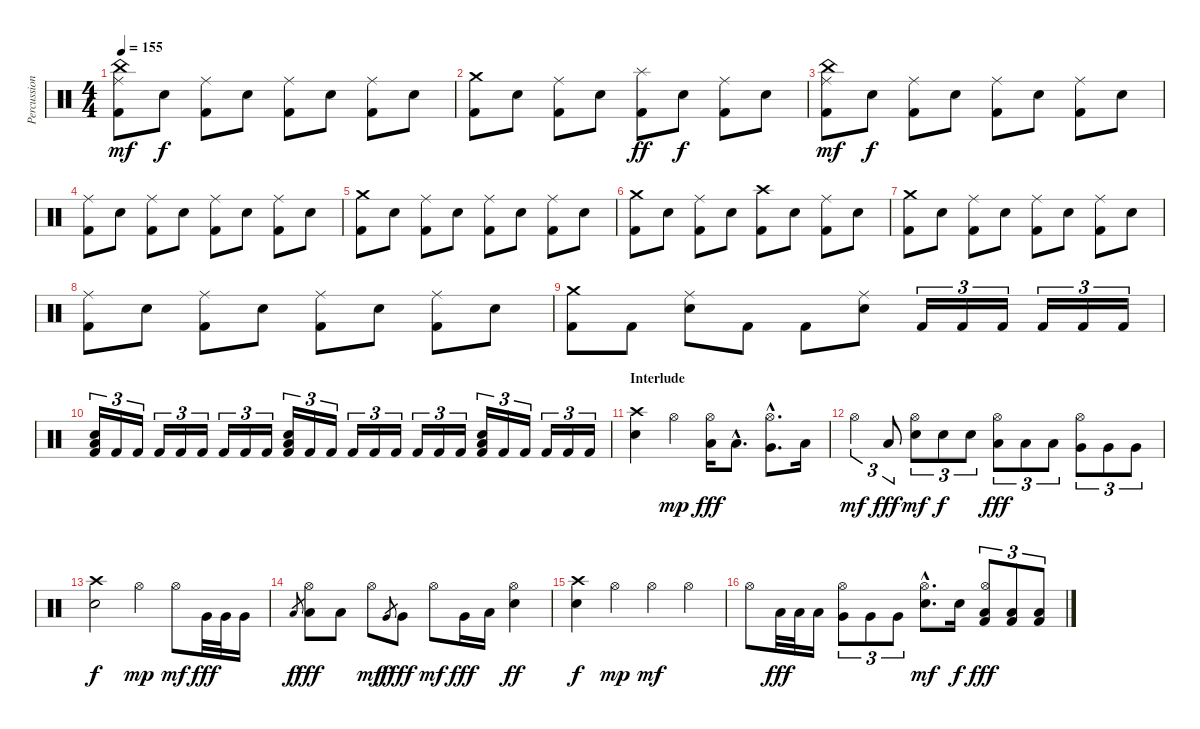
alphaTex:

\track ("Percussion" "Percussion") {instrument percussion}
\staff {score}
\articulation defaults
\ts (4 4)
\tempo 155
\clef neutral
\ks c
("China (hit)" "Ride (middle)" "Kick (hit) 2").8{dy mf} "Electric Snare (hit)".8{dy f} ("Ride (middle)" "Kick (hit) 2").8 "Electric Snare (hit)".8 ("Ride (middle)" "Kick (hit) 2").8 "Electric Snare (hit)".8 ("Ride (middle)" "Kick (hit) 2").8 "Electric Snare (hit)".8 |
("Crash medium (hit)" "Kick (hit) 2").8 "Electric Snare (hit)".8 ("Ride (middle)" "Kick (hit) 2").8 "Electric Snare (hit)".8 ("Splash (hit)" "Kick (hit) 2").8{dy ff} "Electric Snare (hit)".8{dy f} ("Ride (middle)" "Kick (hit) 2").8 "Electric Snare (hit)".8 |
("Ride (middle)" "China (hit)" "Kick (hit) 2").8{dy mf} "Electric Snare (hit)".8{dy f} ("Ride (middle)" "Kick (hit) 2").8 "Electric Snare (hit)".8 ("Ride (middle)" "Kick (hit) 2").8 "Electric Snare (hit)".8 ("Ride (middle)" "Kick (hit) 2").8 "Electric Snare (hit)".8 |
("Ride (middle)" "Kick (hit) 2").8 "Electric Snare (hit)".8 ("Ride (middle)" "Kick (hit) 2").8 "Electric Snare (hit)".8 ("Ride (middle)" "Kick (hit) 2").8 "Electric Snare (hit)".8 ("Ride (middle)" "Kick (hit) 2").8 "Electric Snare (hit)".8 |
("Crash medium (hit)" "Kick (hit) 2").8 "Electric Snare (hit)".8 ("Ride (middle)" "Kick (hit) 2").8 "Electric Snare (hit)".8 ("Ride (middle)" "Kick (hit) 2").8 "Electric Snare (hit)".8 ("Ride (middle)" "Kick (hit) 2").8 "Electric Snare (hit)".8 |
("Crash medium (hit)" "Kick (hit) 2").8 "Electric Snare (hit)".8 ("Ride (middle)" "Kick (hit) 2").8 "Electric Snare (hit)".8 ("Crash high (hit)" "Kick (hit) 2").8 "Electric Snare (hit)".8 ("Ride (middle)" "Kick (hit) 2").8 "Electric Snare (hit)".8 |
("Crash medium (hit)" "Kick (hit) 2").8 "Electric Snare (hit)".8 ("Ride (middle)" "Kick (hit) 2").8 "Electric Snare (hit)".8 ("Ride (middle)" "Kick (hit) 2").8 "Electric Snare (hit)".8 ("Ride (middle)" "Kick (hit) 2").8 "Electric Snare (hit)".8 |
("Ride (middle)" "Kick (hit) 2").8 "Electric Snare (hit)".8 ("Ride (middle)" "Kick (hit) 2").8 "Electric Snare (hit)".8 ("Ride (middle)" "Kick (hit) 2").8 "Electric Snare (hit)".8 ("Ride (middle)" "Kick (hit) 2").8 "Electric Snare (hit)".8 |
("Crash medium (hit)" "Kick (hit) 2").8 "Kick (hit) 2".8 ("Ride (middle)" "Electric Snare (hit)").8 "Kick (hit) 2".8 "Kick (hit) 2".8 ("Ride (middle)" "Electric Snare (hit)").8 "Kick (hit) 2".16{tu (3 2)} "Kick (hit) 2".16{tu (3 2)} "Kick (hit) 2".16{tu (3 2)} "Kick (hit) 2".16{tu (3 2)} "Kick (hit) 2".16{tu (3 2)} "Kick (hit) 2".16{tu (3 2)} |
("Snare (hit) 2" "Low Tom (hit)" "Kick (hit) 2").16{tu (3 2)} "Kick (hit) 2".16{tu (3 2)} "Kick (hit) 2".16{tu (3 2)} "Kick (hit) 2".16{tu (3 2)} "Kick (hit) 2".16{tu (3 2)} "Kick (hit) 2".16{tu (3 2)} "Kick (hit) 2".16{tu (3 2)} "Kick (hit) 2".16{tu (3 2)} "Kick (hit) 2".16{tu (3 2)} ("Snare (hit) 2" "Low Tom (hit)" "Kick (hit) 2").16{tu (3 2)} "Kick (hit) 2".16{tu (3 2)} "Kick (hit) 2".16{tu (3 2)} "Kick (hit) 2".16{tu (3 2)} "Kick (hit) 2".16{tu (3 2)} "Kick (hit) 2".16{tu (3 2)} "Kick (hit) 2".16{tu (3 2)} "Kick (hit) 2".16{tu (3 2)} "Kick (hit) 2".16{tu (3 2)} ("Snare (hit) 2" "Low Tom (hit)" "Kick (hit) 2").16{tu (3 2)} "Kick (hit) 2".16{tu (3 2)} "Kick (hit) 2".16{tu (3 2)} "Kick (hit) 2".16{tu (3 2)} "Kick (hit) 2".16{tu (3 2)} "Kick (hit) 2".16{tu (3 2)} |
\section ("" "Interlude")
("Crash high (hit)" "Snare (hit) 2").4 "Hi-Hat (open)".4{dy mp} ("Hi-Hat (open)" "Low Tom (hit)").16{dy fff} "Low Tom (hit)"{hac}.8{d} ("Hi-Hat (open)"{hac} "Very Low Tom (hit)"{hac}).8{d} "Low Tom (hit)".16 |
"Hi-Hat (open)".4{tu (3 2) dy mf} "Low Tom (hit)".8{tu (3 2) dy fff} ("Hi-Hat (open)" "Electric Snare (hit)").8{tu (3 2) dy mf} "Electric Snare (hit)".8{tu (3 2) dy f} "Electric Snare (hit)".8{tu (3 2)} ("Hi-Hat (open)" "Low Tom (hit)").8{tu (3 2) dy fff} "Low Tom (hit)".8{tu (3 2)} "Low Tom (hit)".8{tu (3 2)} ("Hi-Hat (open)" "Very Low Tom (hit)").8{tu (3 2)} "Very Low Tom (hit)".8{tu (3 2)} "Very Low Tom (hit)".8{tu (3 2)} |
("Crash high (hit)" "Snare (hit) 2").2{dy f} "Hi-Hat (open)".4{dy mp} "Hi-Hat (open)".8{dy mf} "Very Low Tom (hit)".32{dy fff} "Very Low Tom (hit)".32 "Very Low Tom (hit)".16 |
"Low Tom (hit)".8{gr dy f} ("Hi-Hat (open)" "Low Tom (hit)").8{dy fff} "Low Tom (hit)".8 "Hi-Hat (open)".8{dy mf} "Very Low Tom (hit)".8{gr dy f} "Very Low Tom (hit)".8{dy fff} "Hi-Hat (open)".8{dy mf} "Very Low Tom (hit)".16{dy fff} "Low Tom (hit)".16 ("Hi-Hat (open)" "Electric Snare (hit)").4{dy ff} |
("Crash high (hit)" "Snare (hit) 2").4{dy f} "Hi-Hat (open)".4{dy mp} "Hi-Hat (open)".4{dy mf} "Hi-Hat (open)".4 |
"Hi-Hat (open)".8 "Low Floor Tom (hit)".32{dy fff} "Low Floor Tom (hit)".32 "Low Floor Tom (hit)".16 ("Hi-Hat (open)" "Very Low Tom (hit)").8{tu (3 2)} "Very Low Tom (hit)".8{tu (3 2)} "Very Low Tom (hit)".8{tu (3 2)} ("Hi-Hat (open)"{hac} "Electric Snare (hit)"{hac}).8{d dy mf} "Electric Snare (hit)".16{dy f} ("Hi-Hat (open)" "Low Floor Tom (hit)" "Kick (hit) 2").8{tu (3 2) dy fff} ("Low Floor Tom (hit)" "Kick (hit) 2").8{tu (3 2)} ("Low Floor Tom (hit)" "Kick (hit) 2").8{tu (3 2)}
